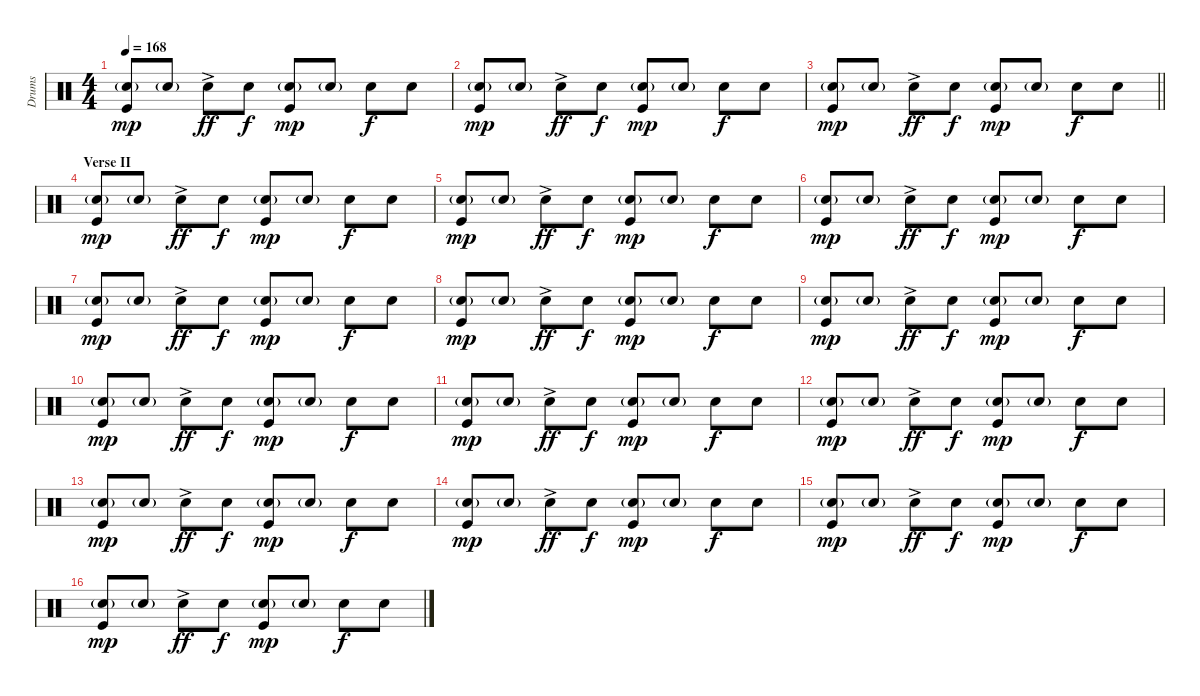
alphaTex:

\track ("Drums" "Drums") {instrument percussion}
\staff {score}
\articulation defaults
\ts (4 4)
\tempo 168
\clef neutral
\ks c
("Snare (hit) 2"{g} "Kick (hit)").8{dy mp} "Snare (hit) 2"{g}.8 "Snare (hit) 2"{ac}.8{dy ff} "Snare (hit) 2".8{dy f} ("Snare (hit) 2"{g} "Kick (hit)").8{dy mp} "Snare (hit) 2"{g}.8 "Snare (hit) 2".8{dy f} "Snare (hit) 2".8 |
("Snare (hit) 2"{g} "Kick (hit)").8{dy mp} "Snare (hit) 2"{g}.8 "Snare (hit) 2"{ac}.8{dy ff} "Snare (hit) 2".8{dy f} ("Snare (hit) 2"{g} "Kick (hit)").8{dy mp} "Snare (hit) 2"{g}.8 "Snare (hit) 2".8{dy f} "Snare (hit) 2".8 |
\barLineRight lightlight
("Snare (hit) 2"{g} "Kick (hit)").8{dy mp} "Snare (hit) 2"{g}.8 "Snare (hit) 2"{ac}.8{dy ff} "Snare (hit) 2".8{dy f} ("Snare (hit) 2"{g} "Kick (hit)").8{dy mp} "Snare (hit) 2"{g}.8 "Snare (hit) 2".8{dy f} "Snare (hit) 2".8 |
\section ("" "Verse II")
("Snare (hit) 2"{g} "Kick (hit)").8{dy mp} "Snare (hit) 2"{g}.8 "Snare (hit) 2"{ac}.8{dy ff} "Snare (hit) 2".8{dy f} ("Snare (hit) 2"{g} "Kick (hit)").8{dy mp} "Snare (hit) 2"{g}.8 "Snare (hit) 2".8{dy f} "Snare (hit) 2".8 |
("Snare (hit) 2"{g} "Kick (hit)").8{dy mp} "Snare (hit) 2"{g}.8 "Snare (hit) 2"{ac}.8{dy ff} "Snare (hit) 2".8{dy f} ("Snare (hit) 2"{g} "Kick (hit)").8{dy mp} "Snare (hit) 2"{g}.8 "Snare (hit) 2".8{dy f} "Snare (hit) 2".8 |
("Snare (hit) 2"{g} "Kick (hit)").8{dy mp} "Snare (hit) 2"{g}.8 "Snare (hit) 2"{ac}.8{dy ff} "Snare (hit) 2".8{dy f} ("Snare (hit) 2"{g} "Kick (hit)").8{dy mp} "Snare (hit) 2"{g}.8 "Snare (hit) 2".8{dy f} "Snare (hit) 2".8 |
("Snare (hit) 2"{g} "Kick (hit)").8{dy mp} "Snare (hit) 2"{g}.8 "Snare (hit) 2"{ac}.8{dy ff} "Snare (hit) 2".8{dy f} ("Snare (hit) 2"{g} "Kick (hit)").8{dy mp} "Snare (hit) 2"{g}.8 "Snare (hit) 2".8{dy f} "Snare (hit) 2".8 |
("Snare (hit) 2"{g} "Kick (hit)").8{dy mp} "Snare (hit) 2"{g}.8 "Snare (hit) 2"{ac}.8{dy ff} "Snare (hit) 2".8{dy f} ("Snare (hit) 2"{g} "Kick (hit)").8{dy mp} "Snare (hit) 2"{g}.8 "Snare (hit) 2".8{dy f} "Snare (hit) 2".8 |
("Snare (hit) 2"{g} "Kick (hit)").8{dy mp} "Snare (hit) 2"{g}.8 "Snare (hit) 2"{ac}.8{dy ff} "Snare (hit) 2".8{dy f} ("Snare (hit) 2"{g} "Kick (hit)").8{dy mp} "Snare (hit) 2"{g}.8 "Snare (hit) 2".8{dy f} "Snare (hit) 2".8 |
("Snare (hit) 2"{g} "Kick (hit)").8{dy mp} "Snare (hit) 2"{g}.8 "Snare (hit) 2"{ac}.8{dy ff} "Snare (hit) 2".8{dy f} ("Snare (hit) 2"{g} "Kick (hit)").8{dy mp} "Snare (hit) 2"{g}.8 "Snare (hit) 2".8{dy f} "Snare (hit) 2".8 |
("Snare (hit) 2"{g} "Kick (hit)").8{dy mp} "Snare (hit) 2"{g}.8 "Snare (hit) 2"{ac}.8{dy ff} "Snare (hit) 2".8{dy f} ("Snare (hit) 2"{g} "Kick (hit)").8{dy mp} "Snare (hit) 2"{g}.8 "Snare (hit) 2".8{dy f} "Snare (hit) 2".8 |
("Snare (hit) 2"{g} "Kick (hit)").8{dy mp} "Snare (hit) 2"{g}.8 "Snare (hit) 2"{ac}.8{dy ff} "Snare (hit) 2".8{dy f} ("Snare (hit) 2"{g} "Kick (hit)").8{dy mp} "Snare (hit) 2"{g}.8 "Snare (hit) 2".8{dy f} "Snare (hit) 2".8 |
("Snare (hit) 2"{g} "Kick (hit)").8{dy mp} "Snare (hit) 2"{g}.8 "Snare (hit) 2"{ac}.8{dy ff} "Snare (hit) 2".8{dy f} ("Snare (hit) 2"{g} "Kick (hit)").8{dy mp} "Snare (hit) 2"{g}.8 "Snare (hit) 2".8{dy f} "Snare (hit) 2".8 |
("Snare (hit) 2"{g} "Kick (hit)").8{dy mp} "Snare (hit) 2"{g}.8 "Snare (hit) 2"{ac}.8{dy ff} "Snare (hit) 2".8{dy f} ("Snare (hit) 2"{g} "Kick (hit)").8{dy mp} "Snare (hit) 2"{g}.8 "Snare (hit) 2".8{dy f} "Snare (hit) 2".8 |
("Snare (hit) 2"{g} "Kick (hit)").8{dy mp} "Snare (hit) 2"{g}.8 "Snare (hit) 2"{ac}.8{dy ff} "Snare (hit) 2".8{dy f} ("Snare (hit) 2"{g} "Kick (hit)").8{dy mp} "Snare (hit) 2"{g}.8 "Snare (hit) 2".8{dy f} "Snare (hit) 2".8 |
("Snare (hit) 2"{g} "Kick (hit)").8{dy mp} "Snare (hit) 2"{g}.8 "Snare (hit) 2"{ac}.8{dy ff} "Snare (hit) 2".8{dy f} ("Snare (hit) 2"{g} "Kick (hit)").8{dy mp} "Snare (hit) 2"{g}.8 "Snare (hit) 2".8{dy f} "Snare (hit) 2".8
